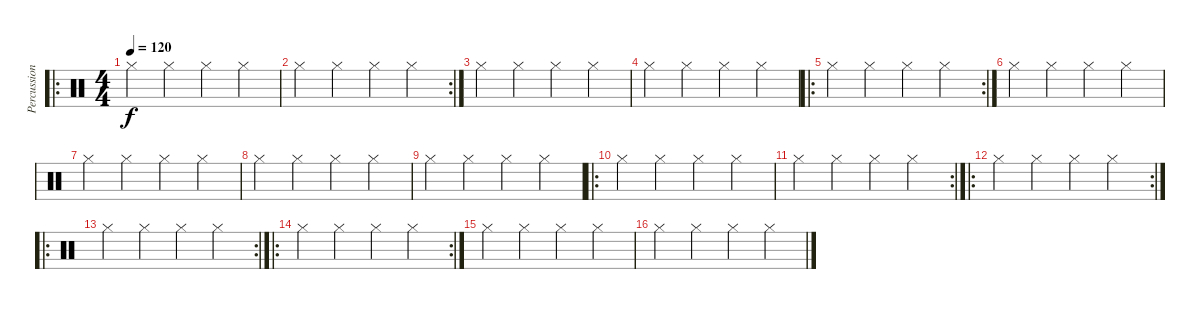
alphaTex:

\track ("Percussioni" "Percussion") {instrument percussion}
\staff {score}
\articulation defaults
\ro
\ts (4 4)
\tempo 120
\clef neutral
\ks c "Hi-Hat (closed)".4{dy f} "Hi-Hat (closed)".4 "Hi-Hat (closed)".4 "Hi-Hat (closed)".4
|
\rc 2 "Hi-Hat (closed)".4 "Hi-Hat (closed)".4 "Hi-Hat (closed)".4 "Hi-Hat (closed)".4
|
"Hi-Hat (closed)".4 "Hi-Hat (closed)".4 "Hi-Hat (closed)".4 "Hi-Hat (closed)".4 |
"Hi-Hat (closed)".4 "Hi-Hat (closed)".4 "Hi-Hat (closed)".4 "Hi-Hat (closed)".4 |
\ro
\rc 2 "Hi-Hat (closed)".4 "Hi-Hat (closed)".4 "Hi-Hat (closed)".4 "Hi-Hat (closed)".4
|
"Hi-Hat (closed)".4 "Hi-Hat (closed)".4 "Hi-Hat (closed)".4 "Hi-Hat (closed)".4 |
"Hi-Hat (closed)".4 "Hi-Hat (closed)".4 "Hi-Hat (closed)".4 "Hi-Hat (closed)".4 |
"Hi-Hat (closed)".4 "Hi-Hat (closed)".4 "Hi-Hat (closed)".4 "Hi-Hat (closed)".4 |
"Hi-Hat (closed)".4 "Hi-Hat (closed)".4 "Hi-Hat (closed)".4 "Hi-Hat (closed)".4 |
\ro "Hi-Hat (closed)".4 "Hi-Hat (closed)".4 "Hi-Hat (closed)".4 "Hi-Hat (closed)".4
|
\rc 2 "Hi-Hat (closed)".4 "Hi-Hat (closed)".4 "Hi-Hat (closed)".4 "Hi-Hat (closed)".4
|
\ro
\rc 2 "Hi-Hat (closed)".4 "Hi-Hat (closed)".4 "Hi-Hat (closed)".4 "Hi-Hat (closed)".4
|
\ro
\rc 2 "Hi-Hat (closed)".4 "Hi-Hat (closed)".4 "Hi-Hat (closed)".4 "Hi-Hat (closed)".4
|
\ro
\rc 2 "Hi-Hat (closed)".4 "Hi-Hat (closed)".4 "Hi-Hat (closed)".4 "Hi-Hat (closed)".4
|
"Hi-Hat (closed)".4 "Hi-Hat (closed)".4 "Hi-Hat (closed)".4 "Hi-Hat (closed)".4 |
"Hi-Hat (closed)".4 "Hi-Hat (closed)".4 "Hi-Hat (closed)".4 "Hi-Hat (closed)".4
